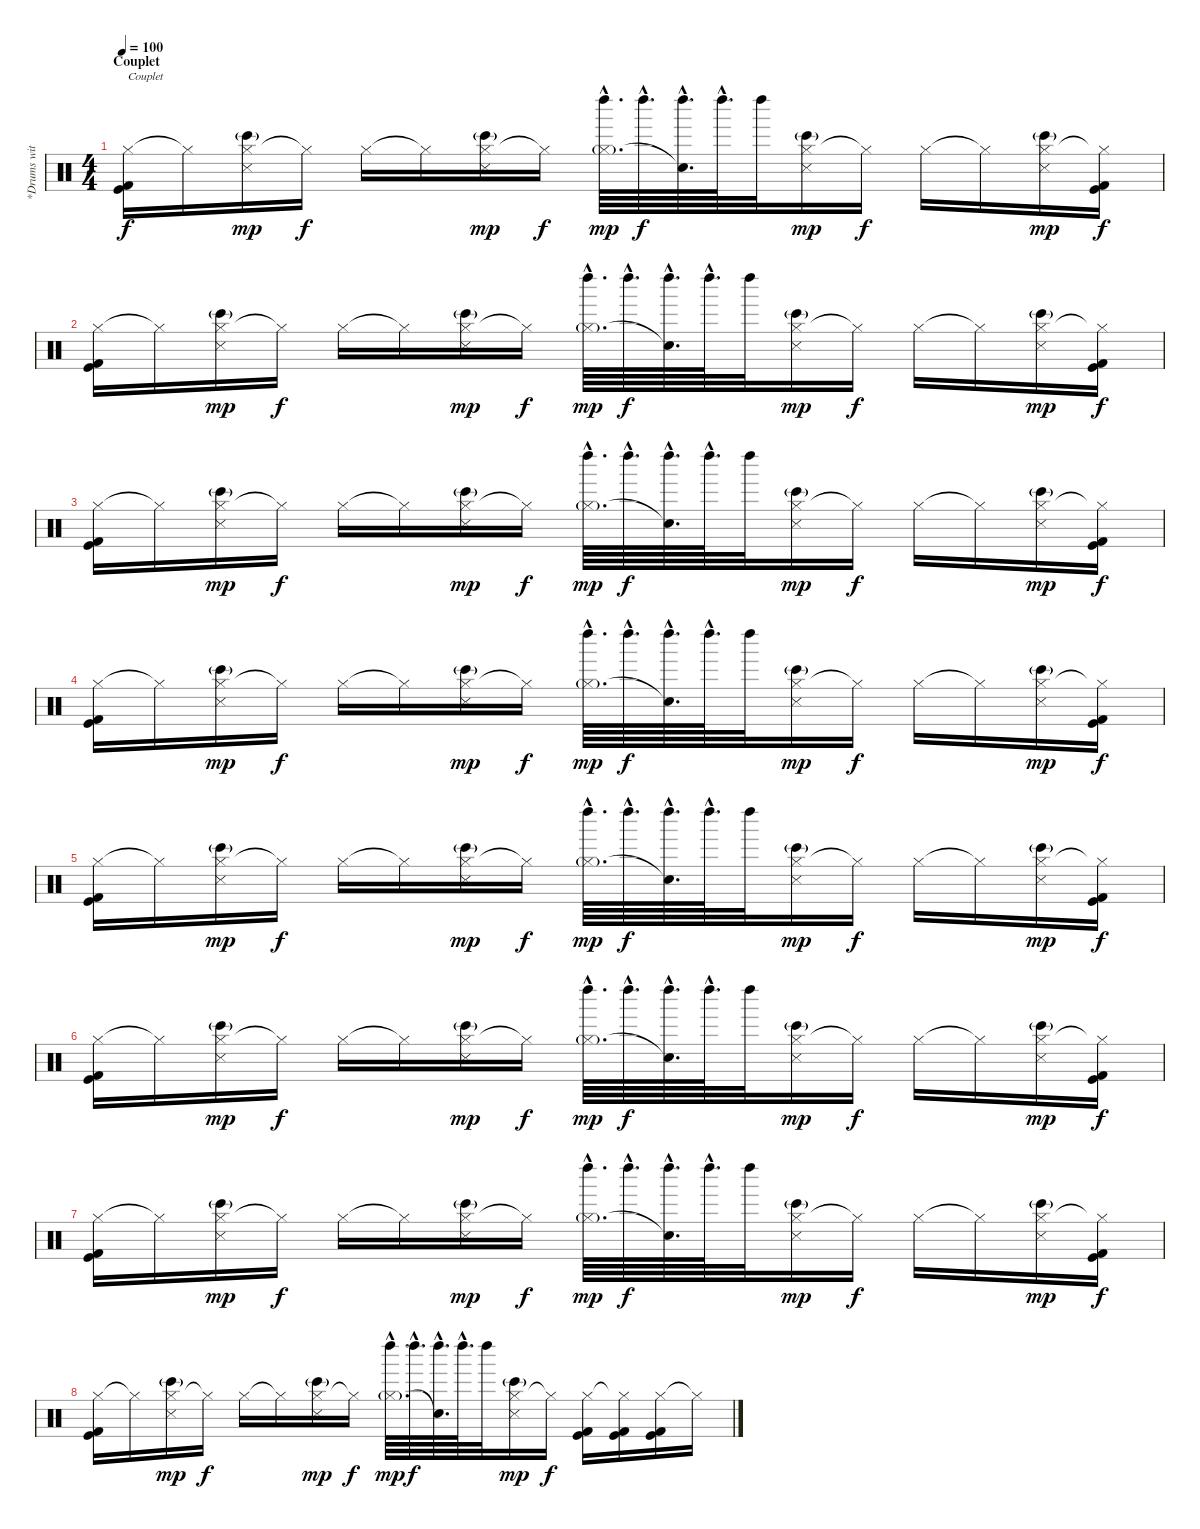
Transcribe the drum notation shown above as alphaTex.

\track ("*Drums with sampled drums (Rob and Joe)" "*Drums wit") {instrument percussion}
\staff {score}
\articulation defaults
\ts (4 4)
\section ("" "Couplet")
\tempo 100
\clef neutral
\ks c
("Hi-Hat (closed)" "Kick (hit)" "Kick (hit) 2").16{txt "Couplet" dy f} "Hi-Hat (closed)"{t}.16 ("Hi-Hat (closed)" "Snare (side stick) 3" "Bongo High (hit)"{g}).16{dy mp} "Hi-Hat (closed)"{t}.16{dy f} "Hi-Hat (closed)".16 "Hi-Hat (closed)"{t}.16 ("Hi-Hat (closed)" "Snare (side stick) 3" "Bongo High (hit)"{g}).16{dy mp} "Hi-Hat (closed)"{t}.16{dy f} ("Left Maraca (hit)"{hac} "Hi-Hat (closed)"{g hac}).64{d dy mp} "Left Maraca (hit)"{hac}.64{d dy f} ("Left Maraca (hit)"{hac} "Snare (hit)"{hac t}).64{d} "Left Maraca (hit)"{hac}.64{d} "Left Maraca (hit)".32 ("Hi-Hat (closed)" "Snare (side stick) 3" "Bongo High (hit)"{g}).16{dy mp} "Hi-Hat (closed)"{t}.16{dy f} "Hi-Hat (closed)".16 "Hi-Hat (closed)"{t}.16 ("Hi-Hat (closed)" "Snare (side stick) 3" "Bongo High (hit)"{g}).16{dy mp} ("Hi-Hat (closed)"{t} "Kick (hit)" "Kick (hit) 2").16{dy f} |
("Hi-Hat (closed)" "Kick (hit)" "Kick (hit) 2").16 "Hi-Hat (closed)"{t}.16 ("Hi-Hat (closed)" "Snare (side stick) 3" "Bongo High (hit)"{g}).16{dy mp} "Hi-Hat (closed)"{t}.16{dy f} "Hi-Hat (closed)".16 "Hi-Hat (closed)"{t}.16 ("Hi-Hat (closed)" "Snare (side stick) 3" "Bongo High (hit)"{g}).16{dy mp} "Hi-Hat (closed)"{t}.16{dy f} ("Left Maraca (hit)"{hac} "Hi-Hat (closed)"{g hac}).64{d dy mp} "Left Maraca (hit)"{hac}.64{d dy f} ("Left Maraca (hit)"{hac} "Snare (hit)"{hac t}).64{d} "Left Maraca (hit)"{hac}.64{d} "Left Maraca (hit)".32 ("Hi-Hat (closed)" "Snare (side stick) 3" "Bongo High (hit)"{g}).16{dy mp} "Hi-Hat (closed)"{t}.16{dy f} "Hi-Hat (closed)".16 "Hi-Hat (closed)"{t}.16 ("Hi-Hat (closed)" "Snare (side stick) 3" "Bongo High (hit)"{g}).16{dy mp} ("Hi-Hat (closed)"{t} "Kick (hit)" "Kick (hit) 2").16{dy f} |
("Hi-Hat (closed)" "Kick (hit)" "Kick (hit) 2").16 "Hi-Hat (closed)"{t}.16 ("Hi-Hat (closed)" "Snare (side stick) 3" "Bongo High (hit)"{g}).16{dy mp} "Hi-Hat (closed)"{t}.16{dy f} "Hi-Hat (closed)".16 "Hi-Hat (closed)"{t}.16 ("Hi-Hat (closed)" "Snare (side stick) 3" "Bongo High (hit)"{g}).16{dy mp} "Hi-Hat (closed)"{t}.16{dy f} ("Left Maraca (hit)"{hac} "Hi-Hat (closed)"{g hac}).64{d dy mp} "Left Maraca (hit)"{hac}.64{d dy f} ("Left Maraca (hit)"{hac} "Snare (hit)"{hac t}).64{d} "Left Maraca (hit)"{hac}.64{d} "Left Maraca (hit)".32 ("Hi-Hat (closed)" "Snare (side stick) 3" "Bongo High (hit)"{g}).16{dy mp} "Hi-Hat (closed)"{t}.16{dy f} "Hi-Hat (closed)".16 "Hi-Hat (closed)"{t}.16 ("Hi-Hat (closed)" "Snare (side stick) 3" "Bongo High (hit)"{g}).16{dy mp} ("Hi-Hat (closed)"{t} "Kick (hit)" "Kick (hit) 2").16{dy f} |
("Hi-Hat (closed)" "Kick (hit)" "Kick (hit) 2").16 "Hi-Hat (closed)"{t}.16 ("Hi-Hat (closed)" "Snare (side stick) 3" "Bongo High (hit)"{g}).16{dy mp} "Hi-Hat (closed)"{t}.16{dy f} "Hi-Hat (closed)".16 "Hi-Hat (closed)"{t}.16 ("Hi-Hat (closed)" "Snare (side stick) 3" "Bongo High (hit)"{g}).16{dy mp} "Hi-Hat (closed)"{t}.16{dy f} ("Left Maraca (hit)"{hac} "Hi-Hat (closed)"{g hac}).64{d dy mp} "Left Maraca (hit)"{hac}.64{d dy f} ("Left Maraca (hit)"{hac} "Snare (hit)"{hac t}).64{d} "Left Maraca (hit)"{hac}.64{d} "Left Maraca (hit)".32 ("Hi-Hat (closed)" "Snare (side stick) 3" "Bongo High (hit)"{g}).16{dy mp} "Hi-Hat (closed)"{t}.16{dy f} "Hi-Hat (closed)".16 "Hi-Hat (closed)"{t}.16 ("Hi-Hat (closed)" "Snare (side stick) 3" "Bongo High (hit)"{g}).16{dy mp} ("Hi-Hat (closed)"{t} "Kick (hit)" "Kick (hit) 2").16{dy f} |
("Hi-Hat (closed)" "Kick (hit)" "Kick (hit) 2").16 "Hi-Hat (closed)"{t}.16 ("Hi-Hat (closed)" "Snare (side stick) 3" "Bongo High (hit)"{g}).16{dy mp} "Hi-Hat (closed)"{t}.16{dy f} "Hi-Hat (closed)".16 "Hi-Hat (closed)"{t}.16 ("Hi-Hat (closed)" "Snare (side stick) 3" "Bongo High (hit)"{g}).16{dy mp} "Hi-Hat (closed)"{t}.16{dy f} ("Left Maraca (hit)"{hac} "Hi-Hat (closed)"{g hac}).64{d dy mp} "Left Maraca (hit)"{hac}.64{d dy f} ("Left Maraca (hit)"{hac} "Snare (hit)"{hac t}).64{d} "Left Maraca (hit)"{hac}.64{d} "Left Maraca (hit)".32 ("Hi-Hat (closed)" "Snare (side stick) 3" "Bongo High (hit)"{g}).16{dy mp} "Hi-Hat (closed)"{t}.16{dy f} "Hi-Hat (closed)".16 "Hi-Hat (closed)"{t}.16 ("Hi-Hat (closed)" "Snare (side stick) 3" "Bongo High (hit)"{g}).16{dy mp} ("Hi-Hat (closed)"{t} "Kick (hit)" "Kick (hit) 2").16{dy f} |
("Hi-Hat (closed)" "Kick (hit)" "Kick (hit) 2").16 "Hi-Hat (closed)"{t}.16 ("Hi-Hat (closed)" "Snare (side stick) 3" "Bongo High (hit)"{g}).16{dy mp} "Hi-Hat (closed)"{t}.16{dy f} "Hi-Hat (closed)".16 "Hi-Hat (closed)"{t}.16 ("Hi-Hat (closed)" "Snare (side stick) 3" "Bongo High (hit)"{g}).16{dy mp} "Hi-Hat (closed)"{t}.16{dy f} ("Left Maraca (hit)"{hac} "Hi-Hat (closed)"{g hac}).64{d dy mp} "Left Maraca (hit)"{hac}.64{d dy f} ("Left Maraca (hit)"{hac} "Snare (hit)"{hac t}).64{d} "Left Maraca (hit)"{hac}.64{d} "Left Maraca (hit)".32 ("Hi-Hat (closed)" "Snare (side stick) 3" "Bongo High (hit)"{g}).16{dy mp} "Hi-Hat (closed)"{t}.16{dy f} "Hi-Hat (closed)".16 "Hi-Hat (closed)"{t}.16 ("Hi-Hat (closed)" "Snare (side stick) 3" "Bongo High (hit)"{g}).16{dy mp} ("Hi-Hat (closed)"{t} "Kick (hit)" "Kick (hit) 2").16{dy f} |
("Hi-Hat (closed)" "Kick (hit)" "Kick (hit) 2").16 "Hi-Hat (closed)"{t}.16 ("Hi-Hat (closed)" "Snare (side stick) 3" "Bongo High (hit)"{g}).16{dy mp} "Hi-Hat (closed)"{t}.16{dy f} "Hi-Hat (closed)".16 "Hi-Hat (closed)"{t}.16 ("Hi-Hat (closed)" "Snare (side stick) 3" "Bongo High (hit)"{g}).16{dy mp} "Hi-Hat (closed)"{t}.16{dy f} ("Left Maraca (hit)"{hac} "Hi-Hat (closed)"{g hac}).64{d dy mp} "Left Maraca (hit)"{hac}.64{d dy f} ("Left Maraca (hit)"{hac} "Snare (hit)"{hac t}).64{d} "Left Maraca (hit)"{hac}.64{d} "Left Maraca (hit)".32 ("Hi-Hat (closed)" "Snare (side stick) 3" "Bongo High (hit)"{g}).16{dy mp} "Hi-Hat (closed)"{t}.16{dy f} "Hi-Hat (closed)".16 "Hi-Hat (closed)"{t}.16 ("Hi-Hat (closed)" "Snare (side stick) 3" "Bongo High (hit)"{g}).16{dy mp} ("Hi-Hat (closed)"{t} "Kick (hit)" "Kick (hit) 2").16{dy f} |
("Hi-Hat (closed)" "Kick (hit)" "Kick (hit) 2").16 "Hi-Hat (closed)"{t}.16 ("Hi-Hat (closed)" "Snare (side stick) 3" "Bongo High (hit)"{g}).16{dy mp} "Hi-Hat (closed)"{t}.16{dy f} "Hi-Hat (closed)".16 "Hi-Hat (closed)"{t}.16 ("Hi-Hat (closed)" "Snare (side stick) 3" "Bongo High (hit)"{g}).16{dy mp} "Hi-Hat (closed)"{t}.16{dy f} ("Left Maraca (hit)"{hac} "Hi-Hat (closed)"{g hac}).64{d dy mp} "Left Maraca (hit)"{hac}.64{d dy f} ("Left Maraca (hit)"{hac} "Snare (hit)"{hac t}).64{d} "Left Maraca (hit)"{hac}.64{d} "Left Maraca (hit)".32 ("Hi-Hat (closed)" "Snare (side stick) 3" "Bongo High (hit)"{g}).16{dy mp} "Hi-Hat (closed)"{t}.16{dy f} ("Hi-Hat (closed)" "Kick (hit)" "Kick (hit) 2").16 ("Hi-Hat (closed)"{t} "Kick (hit)" "Kick (hit) 2").16 ("Hi-Hat (closed)" "Kick (hit)" "Kick (hit) 2").16 "Hi-Hat (closed)"{t}.16
